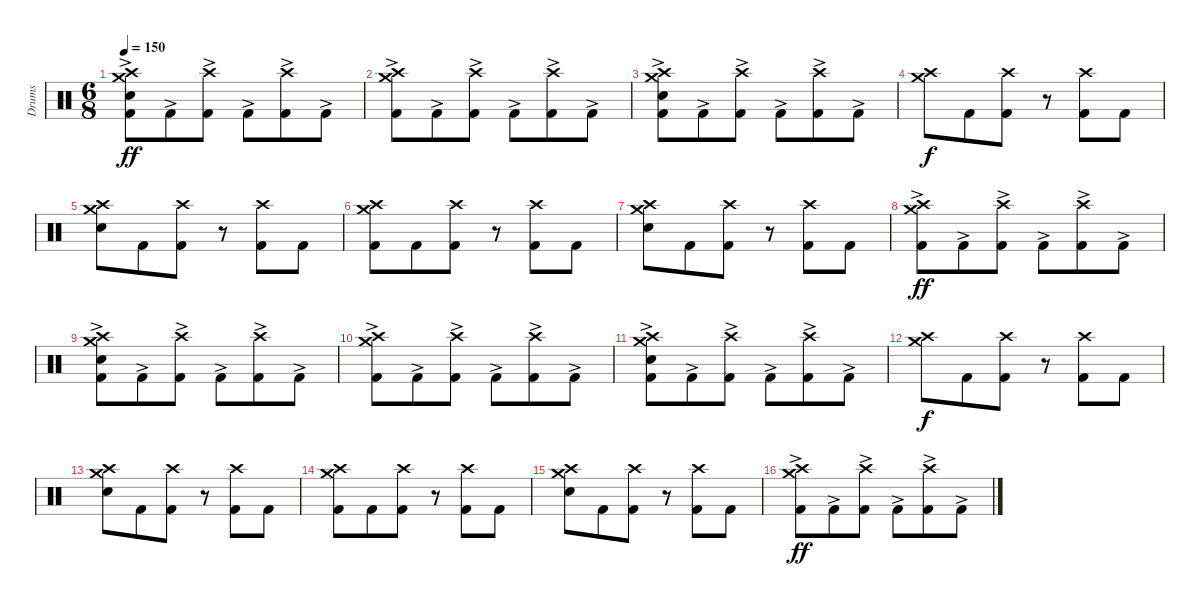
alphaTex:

\track ("Drums" "Drums") {mute instrument percussion}
\staff {score}
\articulation defaults
\ts (6 8)
\tempo 150
\clef neutral
\ks c
("Crash medium (hit)" "Crash high (hit)" "Electric Snare (hit)" "Kick (hit) 2"{ac}).8{dy ff} "Kick (hit) 2"{ac}.8 ("Crash high (hit)" "Kick (hit) 2"{ac}).8 "Kick (hit) 2"{ac}.8 ("Crash high (hit)" "Kick (hit) 2"{ac}).8 "Kick (hit) 2"{ac}.8 |
("Crash medium (hit)" "Crash high (hit)" "Kick (hit) 2"{ac}).8 "Kick (hit) 2"{ac}.8 ("Crash high (hit)" "Kick (hit) 2"{ac}).8 "Kick (hit) 2"{ac}.8 ("Crash high (hit)" "Kick (hit) 2"{ac}).8 "Kick (hit) 2"{ac}.8 |
("Crash medium (hit)" "Crash high (hit)" "Electric Snare (hit)" "Kick (hit) 2"{ac}).8 "Kick (hit) 2"{ac}.8 ("Crash high (hit)" "Kick (hit) 2"{ac}).8 "Kick (hit) 2"{ac}.8 ("Crash high (hit)" "Kick (hit) 2"{ac}).8 "Kick (hit) 2"{ac}.8 |
("Crash medium (hit)" "Crash high (hit)").8{dy f} "Kick (hit) 2".8 ("Crash high (hit)" "Kick (hit) 2").8 r.8 ("Crash high (hit)" "Kick (hit) 2").8 "Kick (hit) 2".8 |
("Crash medium (hit)" "Crash high (hit)" "Electric Snare (hit)").8 "Kick (hit) 2".8 ("Crash high (hit)" "Kick (hit) 2").8 r.8 ("Crash high (hit)" "Kick (hit) 2").8 "Kick (hit) 2".8 |
("Crash medium (hit)" "Crash high (hit)" "Kick (hit) 2").8 "Kick (hit) 2".8 ("Crash high (hit)" "Kick (hit) 2").8 r.8 ("Crash high (hit)" "Kick (hit) 2").8 "Kick (hit) 2".8 |
("Crash medium (hit)" "Crash high (hit)" "Electric Snare (hit)").8 "Kick (hit) 2".8 ("Crash high (hit)" "Kick (hit) 2").8 r.8 ("Crash high (hit)" "Kick (hit) 2").8 "Kick (hit) 2".8 |
("Crash medium (hit)" "Crash high (hit)" "Kick (hit) 2"{ac}).8{dy ff} "Kick (hit) 2"{ac}.8 ("Crash high (hit)" "Kick (hit) 2"{ac}).8 "Kick (hit) 2"{ac}.8 ("Crash high (hit)" "Kick (hit) 2"{ac}).8 "Kick (hit) 2"{ac}.8 |
("Crash medium (hit)" "Crash high (hit)" "Electric Snare (hit)" "Kick (hit) 2"{ac}).8 "Kick (hit) 2"{ac}.8 ("Crash high (hit)" "Kick (hit) 2"{ac}).8 "Kick (hit) 2"{ac}.8 ("Crash high (hit)" "Kick (hit) 2"{ac}).8 "Kick (hit) 2"{ac}.8 |
("Crash medium (hit)" "Crash high (hit)" "Kick (hit) 2"{ac}).8 "Kick (hit) 2"{ac}.8 ("Crash high (hit)" "Kick (hit) 2"{ac}).8 "Kick (hit) 2"{ac}.8 ("Crash high (hit)" "Kick (hit) 2"{ac}).8 "Kick (hit) 2"{ac}.8 |
("Crash medium (hit)" "Crash high (hit)" "Electric Snare (hit)" "Kick (hit) 2"{ac}).8 "Kick (hit) 2"{ac}.8 ("Crash high (hit)" "Kick (hit) 2"{ac}).8 "Kick (hit) 2"{ac}.8 ("Crash high (hit)" "Kick (hit) 2"{ac}).8 "Kick (hit) 2"{ac}.8 |
("Crash medium (hit)" "Crash high (hit)").8{dy f} "Kick (hit) 2".8 ("Crash high (hit)" "Kick (hit) 2").8 r.8 ("Crash high (hit)" "Kick (hit) 2").8 "Kick (hit) 2".8 |
("Crash medium (hit)" "Crash high (hit)" "Electric Snare (hit)").8 "Kick (hit) 2".8 ("Crash high (hit)" "Kick (hit) 2").8 r.8 ("Crash high (hit)" "Kick (hit) 2").8 "Kick (hit) 2".8 |
("Crash medium (hit)" "Crash high (hit)" "Kick (hit) 2").8 "Kick (hit) 2".8 ("Crash high (hit)" "Kick (hit) 2").8 r.8 ("Crash high (hit)" "Kick (hit) 2").8 "Kick (hit) 2".8 |
("Crash medium (hit)" "Crash high (hit)" "Electric Snare (hit)").8 "Kick (hit) 2".8 ("Crash high (hit)" "Kick (hit) 2").8 r.8 ("Crash high (hit)" "Kick (hit) 2").8 "Kick (hit) 2".8 |
("Crash medium (hit)" "Crash high (hit)" "Kick (hit) 2"{ac}).8{dy ff} "Kick (hit) 2"{ac}.8 ("Crash high (hit)" "Kick (hit) 2"{ac}).8 "Kick (hit) 2"{ac}.8 ("Crash high (hit)" "Kick (hit) 2"{ac}).8 "Kick (hit) 2"{ac}.8
